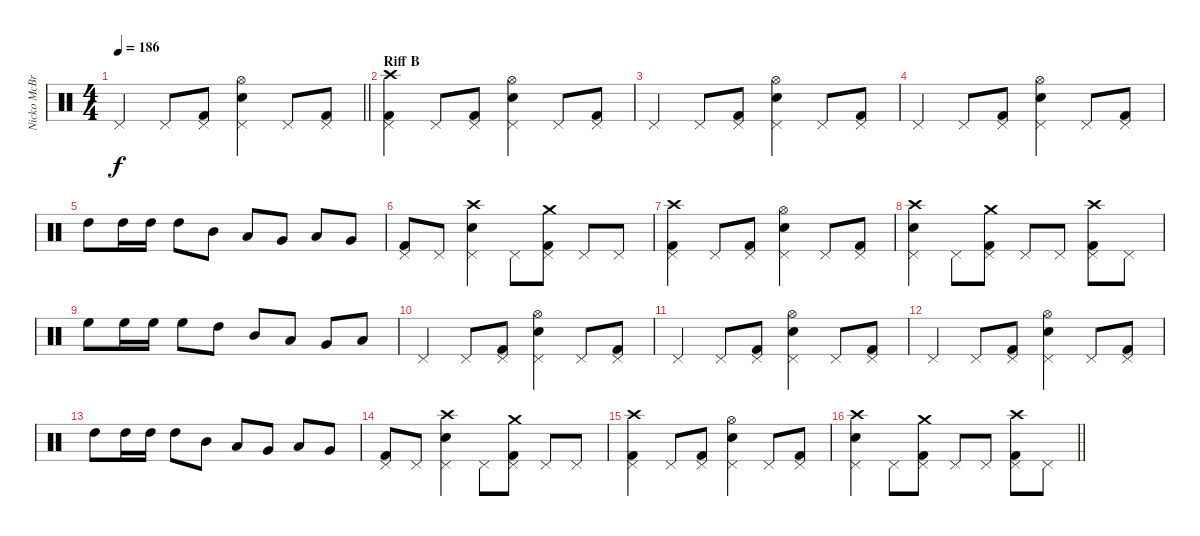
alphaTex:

\track ("Nicko McBrain" "Nicko McBr") {instrument percussion}
\staff {score}
\articulation defaults
\ts (4 4)
\tempo 186
\clef neutral
\barLineRight lightlight
\ks c "Pedal Hi-Hat (hit)".4{dy f} "Pedal Hi-Hat (hit)".8
("Kick (hit) 2" "Pedal Hi-Hat (hit)").8 ("Snare (hit) 2" "Pedal Hi-Hat (hit)" "Hi-Hat (open)").4 "Pedal Hi-Hat (hit)".8 ("Kick (hit) 2" "Pedal Hi-Hat (hit)").8 |
\section ("" "Riff B")
("Kick (hit) 2" "Pedal Hi-Hat (hit)" "Crash high (hit)").4 "Pedal Hi-Hat (hit)".8 ("Kick (hit) 2" "Pedal Hi-Hat (hit)").8 ("Snare (hit) 2" "Pedal Hi-Hat (hit)" "Hi-Hat (open)").4 "Pedal Hi-Hat (hit)".8 ("Kick (hit) 2" "Pedal Hi-Hat (hit)").8 |
"Pedal Hi-Hat (hit)".4 "Pedal Hi-Hat (hit)".8 ("Kick (hit) 2" "Pedal Hi-Hat (hit)").8 ("Snare (hit) 2" "Pedal Hi-Hat (hit)" "Hi-Hat (open)").4 "Pedal Hi-Hat (hit)".8 ("Kick (hit) 2" "Pedal Hi-Hat (hit)").8 |
"Pedal Hi-Hat (hit)".4 "Pedal Hi-Hat (hit)".8 ("Kick (hit) 2" "Pedal Hi-Hat (hit)").8 ("Snare (hit) 2" "Pedal Hi-Hat (hit)" "Hi-Hat (open)").4 "Pedal Hi-Hat (hit)".8 ("Kick (hit) 2" "Pedal Hi-Hat (hit)").8 |
"High Tom (hit)".8 "High Tom (hit)".16 "High Tom (hit)".16 "High Tom (hit)".8 "Mid Tom (hit)".8 "Low Tom (hit)".8 "Very Low Tom (hit)".8 "Low Floor Tom (hit)".8 "Very Low Tom (hit)".8 |
("Kick (hit) 2" "Pedal Hi-Hat (hit)").8 "Pedal Hi-Hat (hit)".8 ("Snare (hit) 2" "Pedal Hi-Hat (hit)" "Crash high (hit)").4 "Pedal Hi-Hat (hit)".8 ("Kick (hit) 2" "Pedal Hi-Hat (hit)" "Crash medium (hit)").8 "Pedal Hi-Hat (hit)".8 "Pedal Hi-Hat (hit)".8 |
("Kick (hit) 2" "Pedal Hi-Hat (hit)" "Crash high (hit)").4 "Pedal Hi-Hat (hit)".8 ("Kick (hit) 2" "Pedal Hi-Hat (hit)").8 ("Snare (hit) 2" "Pedal Hi-Hat (hit)" "Hi-Hat (open)").4 "Pedal Hi-Hat (hit)".8 ("Kick (hit) 2" "Pedal Hi-Hat (hit)").8 |
("Snare (hit) 2" "Pedal Hi-Hat (hit)" "Crash high (hit)").4 "Pedal Hi-Hat (hit)".8 ("Kick (hit) 2" "Pedal Hi-Hat (hit)" "Crash medium (hit)").8 "Pedal Hi-Hat (hit)".8 "Pedal Hi-Hat (hit)".8 ("Kick (hit) 2" "Pedal Hi-Hat (hit)" "Crash high (hit)").8 "Pedal Hi-Hat (hit)".8 |
"High Floor Tom (hit)".8 "High Floor Tom (hit)".16 "High Floor Tom (hit)".16 "High Floor Tom (hit)".8 "High Tom (hit)".8 "Mid Tom (hit)".8 "Low Tom (hit)".8 "Very Low Tom (hit)".8 "Low Floor Tom (hit)".8 |
"Pedal Hi-Hat (hit)".4 "Pedal Hi-Hat (hit)".8 ("Kick (hit) 2" "Pedal Hi-Hat (hit)").8 ("Snare (hit) 2" "Pedal Hi-Hat (hit)" "Hi-Hat (open)").4 "Pedal Hi-Hat (hit)".8 ("Kick (hit) 2" "Pedal Hi-Hat (hit)").8 |
"Pedal Hi-Hat (hit)".4 "Pedal Hi-Hat (hit)".8 ("Kick (hit) 2" "Pedal Hi-Hat (hit)").8 ("Snare (hit) 2" "Pedal Hi-Hat (hit)" "Hi-Hat (open)").4 "Pedal Hi-Hat (hit)".8 ("Kick (hit) 2" "Pedal Hi-Hat (hit)").8 |
"Pedal Hi-Hat (hit)".4 "Pedal Hi-Hat (hit)".8 ("Kick (hit) 2" "Pedal Hi-Hat (hit)").8 ("Snare (hit) 2" "Pedal Hi-Hat (hit)" "Hi-Hat (open)").4 "Pedal Hi-Hat (hit)".8 ("Kick (hit) 2" "Pedal Hi-Hat (hit)").8 |
"High Tom (hit)".8 "High Tom (hit)".16 "High Tom (hit)".16 "High Tom (hit)".8 "Mid Tom (hit)".8 "Low Tom (hit)".8 "Very Low Tom (hit)".8 "Low Floor Tom (hit)".8 "Very Low Tom (hit)".8 |
("Kick (hit) 2" "Pedal Hi-Hat (hit)").8 "Pedal Hi-Hat (hit)".8 ("Snare (hit) 2" "Pedal Hi-Hat (hit)" "Crash high (hit)").4 "Pedal Hi-Hat (hit)".8 ("Kick (hit) 2" "Pedal Hi-Hat (hit)" "Crash medium (hit)").8 "Pedal Hi-Hat (hit)".8 "Pedal Hi-Hat (hit)".8 |
("Kick (hit) 2" "Pedal Hi-Hat (hit)" "Crash high (hit)").4 "Pedal Hi-Hat (hit)".8 ("Kick (hit) 2" "Pedal Hi-Hat (hit)").8 ("Snare (hit) 2" "Pedal Hi-Hat (hit)" "Hi-Hat (open)").4 "Pedal Hi-Hat (hit)".8 ("Kick (hit) 2" "Pedal Hi-Hat (hit)").8 |
\barLineRight lightlight
("Snare (hit) 2" "Pedal Hi-Hat (hit)" "Crash high (hit)").4 "Pedal Hi-Hat (hit)".8 ("Kick (hit) 2" "Pedal Hi-Hat (hit)" "Crash medium (hit)").8 "Pedal Hi-Hat (hit)".8 "Pedal Hi-Hat (hit)".8 ("Kick (hit) 2" "Pedal Hi-Hat (hit)" "Crash high (hit)").8 "Pedal Hi-Hat (hit)".8
